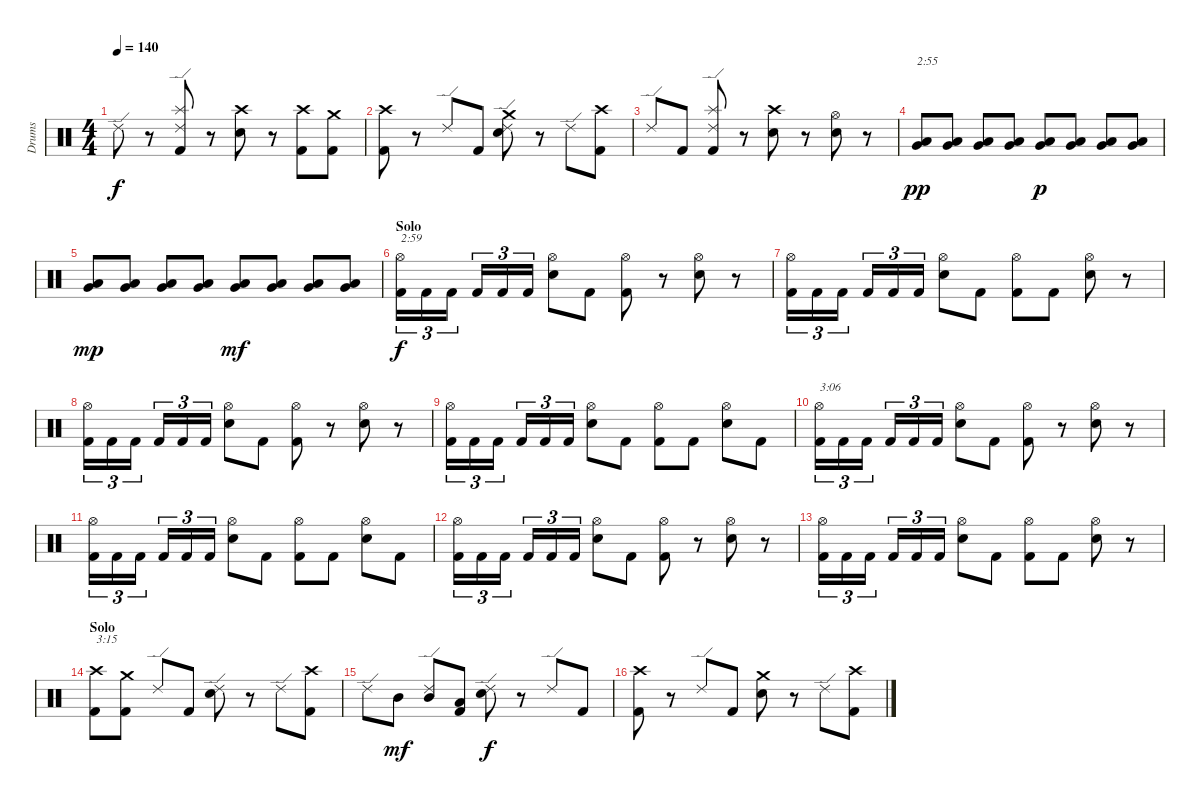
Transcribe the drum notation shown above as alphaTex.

\track ("Drums" "Drums") {instrument percussion}
\staff {score}
\articulation defaults
\ts (4 4)
\tempo 140
\clef neutral
\ks c "Ride (edge) 2".8{dy f}
r.8 ("Splash (hit)" "Ride (edge) 2" "Kick (hit) 2").8 r.8 ("Crash high (hit)" "Electric Snare (hit)").8 r.8 ("Crash high (hit)" "Kick (hit) 2").8 ("Crash medium (hit)" "Kick (hit) 2").8 |
("Crash high (hit)" "Kick (hit) 2").8 r.8 "Ride (edge) 2".8 "Kick (hit) 2".8 ("Crash medium (hit)" "Ride (edge) 2" "Electric Snare (hit)").8 r.8 "Ride (edge) 2".8 ("Crash high (hit)" "Kick (hit) 2").8 |
"Ride (edge) 2".8 "Kick (hit) 2".8 ("Splash (hit)" "Ride (edge) 2" "Kick (hit) 2").8 r.8 ("Crash high (hit)" "Electric Snare (hit)").8 r.8 ("Hi-Hat (open)" "Electric Snare (hit)").8 r.8 |
("Very Low Tom (hit)" "Low Floor Tom (hit)").8{txt "2:55" dy pp} ("Very Low Tom (hit)" "Low Floor Tom (hit)").8 ("Very Low Tom (hit)" "Low Floor Tom (hit)").8 ("Very Low Tom (hit)" "Low Floor Tom (hit)").8 ("Very Low Tom (hit)" "Low Floor Tom (hit)").8{dy p} ("Very Low Tom (hit)" "Low Floor Tom (hit)").8 ("Very Low Tom (hit)" "Low Floor Tom (hit)").8 ("Very Low Tom (hit)" "Low Floor Tom (hit)").8 |
("Very Low Tom (hit)" "Low Floor Tom (hit)").8{dy mp} ("Very Low Tom (hit)" "Low Floor Tom (hit)").8 ("Very Low Tom (hit)" "Low Floor Tom (hit)").8 ("Very Low Tom (hit)" "Low Floor Tom (hit)").8 ("Very Low Tom (hit)" "Low Floor Tom (hit)").8{dy mf} ("Very Low Tom (hit)" "Low Floor Tom (hit)").8 ("Very Low Tom (hit)" "Low Floor Tom (hit)").8 ("Very Low Tom (hit)" "Low Floor Tom (hit)").8 |
\section ("" "Solo")
("Hi-Hat (open)" "Kick (hit) 2").16{tu (3 2) txt "2:59" dy f} "Kick (hit) 2".16{tu (3 2)} "Kick (hit) 2".16{tu (3 2)} "Kick (hit) 2".16{tu (3 2)} "Kick (hit) 2".16{tu (3 2)} "Kick (hit) 2".16{tu (3 2)} ("Hi-Hat (open)" "Electric Snare (hit)").8 "Kick (hit) 2".8 ("Hi-Hat (open)" "Kick (hit) 2").8 r.8 ("Hi-Hat (open)" "Electric Snare (hit)").8 r.8 |
("Hi-Hat (open)" "Kick (hit) 2").16{tu (3 2)} "Kick (hit) 2".16{tu (3 2)} "Kick (hit) 2".16{tu (3 2)} "Kick (hit) 2".16{tu (3 2)} "Kick (hit) 2".16{tu (3 2)} "Kick (hit) 2".16{tu (3 2)} ("Hi-Hat (open)" "Electric Snare (hit)").8 "Kick (hit) 2".8 ("Hi-Hat (open)" "Kick (hit) 2").8 "Kick (hit) 2".8 ("Hi-Hat (open)" "Electric Snare (hit)").8 r.8 |
("Hi-Hat (open)" "Kick (hit) 2").16{tu (3 2)} "Kick (hit) 2".16{tu (3 2)} "Kick (hit) 2".16{tu (3 2)} "Kick (hit) 2".16{tu (3 2)} "Kick (hit) 2".16{tu (3 2)} "Kick (hit) 2".16{tu (3 2)} ("Hi-Hat (open)" "Electric Snare (hit)").8 "Kick (hit) 2".8 ("Hi-Hat (open)" "Kick (hit) 2").8 r.8 ("Hi-Hat (open)" "Electric Snare (hit)").8 r.8 |
("Hi-Hat (open)" "Kick (hit) 2").16{tu (3 2)} "Kick (hit) 2".16{tu (3 2)} "Kick (hit) 2".16{tu (3 2)} "Kick (hit) 2".16{tu (3 2)} "Kick (hit) 2".16{tu (3 2)} "Kick (hit) 2".16{tu (3 2)} ("Hi-Hat (open)" "Electric Snare (hit)").8 "Kick (hit) 2".8 ("Hi-Hat (open)" "Kick (hit) 2").8 "Kick (hit) 2".8 ("Hi-Hat (open)" "Electric Snare (hit)").8 "Kick (hit) 2".8 |
("Hi-Hat (open)" "Kick (hit) 2").16{tu (3 2) txt "3:06"} "Kick (hit) 2".16{tu (3 2)} "Kick (hit) 2".16{tu (3 2)} "Kick (hit) 2".16{tu (3 2)} "Kick (hit) 2".16{tu (3 2)} "Kick (hit) 2".16{tu (3 2)} ("Hi-Hat (open)" "Electric Snare (hit)").8 "Kick (hit) 2".8 ("Hi-Hat (open)" "Kick (hit) 2").8 r.8 ("Hi-Hat (open)" "Electric Snare (hit)").8 r.8 |
("Hi-Hat (open)" "Kick (hit) 2").16{tu (3 2)} "Kick (hit) 2".16{tu (3 2)} "Kick (hit) 2".16{tu (3 2)} "Kick (hit) 2".16{tu (3 2)} "Kick (hit) 2".16{tu (3 2)} "Kick (hit) 2".16{tu (3 2)} ("Hi-Hat (open)" "Electric Snare (hit)").8 "Kick (hit) 2".8 ("Hi-Hat (open)" "Kick (hit) 2").8 "Kick (hit) 2".8 ("Hi-Hat (open)" "Electric Snare (hit)").8 "Kick (hit) 2".8 |
("Hi-Hat (open)" "Kick (hit) 2").16{tu (3 2)} "Kick (hit) 2".16{tu (3 2)} "Kick (hit) 2".16{tu (3 2)} "Kick (hit) 2".16{tu (3 2)} "Kick (hit) 2".16{tu (3 2)} "Kick (hit) 2".16{tu (3 2)} ("Hi-Hat (open)" "Electric Snare (hit)").8 "Kick (hit) 2".8 ("Hi-Hat (open)" "Kick (hit) 2").8 r.8 ("Hi-Hat (open)" "Electric Snare (hit)").8 r.8 |
("Hi-Hat (open)" "Kick (hit) 2").16{tu (3 2)} "Kick (hit) 2".16{tu (3 2)} "Kick (hit) 2".16{tu (3 2)} "Kick (hit) 2".16{tu (3 2)} "Kick (hit) 2".16{tu (3 2)} "Kick (hit) 2".16{tu (3 2)} ("Hi-Hat (open)" "Electric Snare (hit)").8 "Kick (hit) 2".8 ("Hi-Hat (open)" "Kick (hit) 2").8 "Kick (hit) 2".8 ("Hi-Hat (open)" "Electric Snare (hit)").8 r.8 |
\section ("" "Solo")
("Crash high (hit)" "Kick (hit) 2").8{txt "3:15"} ("Crash medium (hit)" "Kick (hit) 2").8 "Ride (edge) 2".8 "Kick (hit) 2".8 ("Ride (edge) 2" "Electric Snare (hit)").8 r.8 "Ride (edge) 2".8 ("Crash high (hit)" "Kick (hit) 2").8 |
"Ride (edge) 2".8 "Mid Tom (hit)".8{dy mf} ("Ride (edge) 2" "Mid Tom (hit)").8 ("Low Tom (hit)" "Kick (hit) 2").8 ("Ride (edge) 2" "Electric Snare (hit)").8{dy f} r.8 "Ride (edge) 2".8 "Kick (hit) 2".8 |
("Crash high (hit)" "Kick (hit) 2").8 r.8 "Ride (edge) 2".8 "Kick (hit) 2".8 ("Crash medium (hit)" "Electric Snare (hit)").8 r.8 "Ride (edge) 2".8 ("Crash high (hit)" "Kick (hit) 2").8
